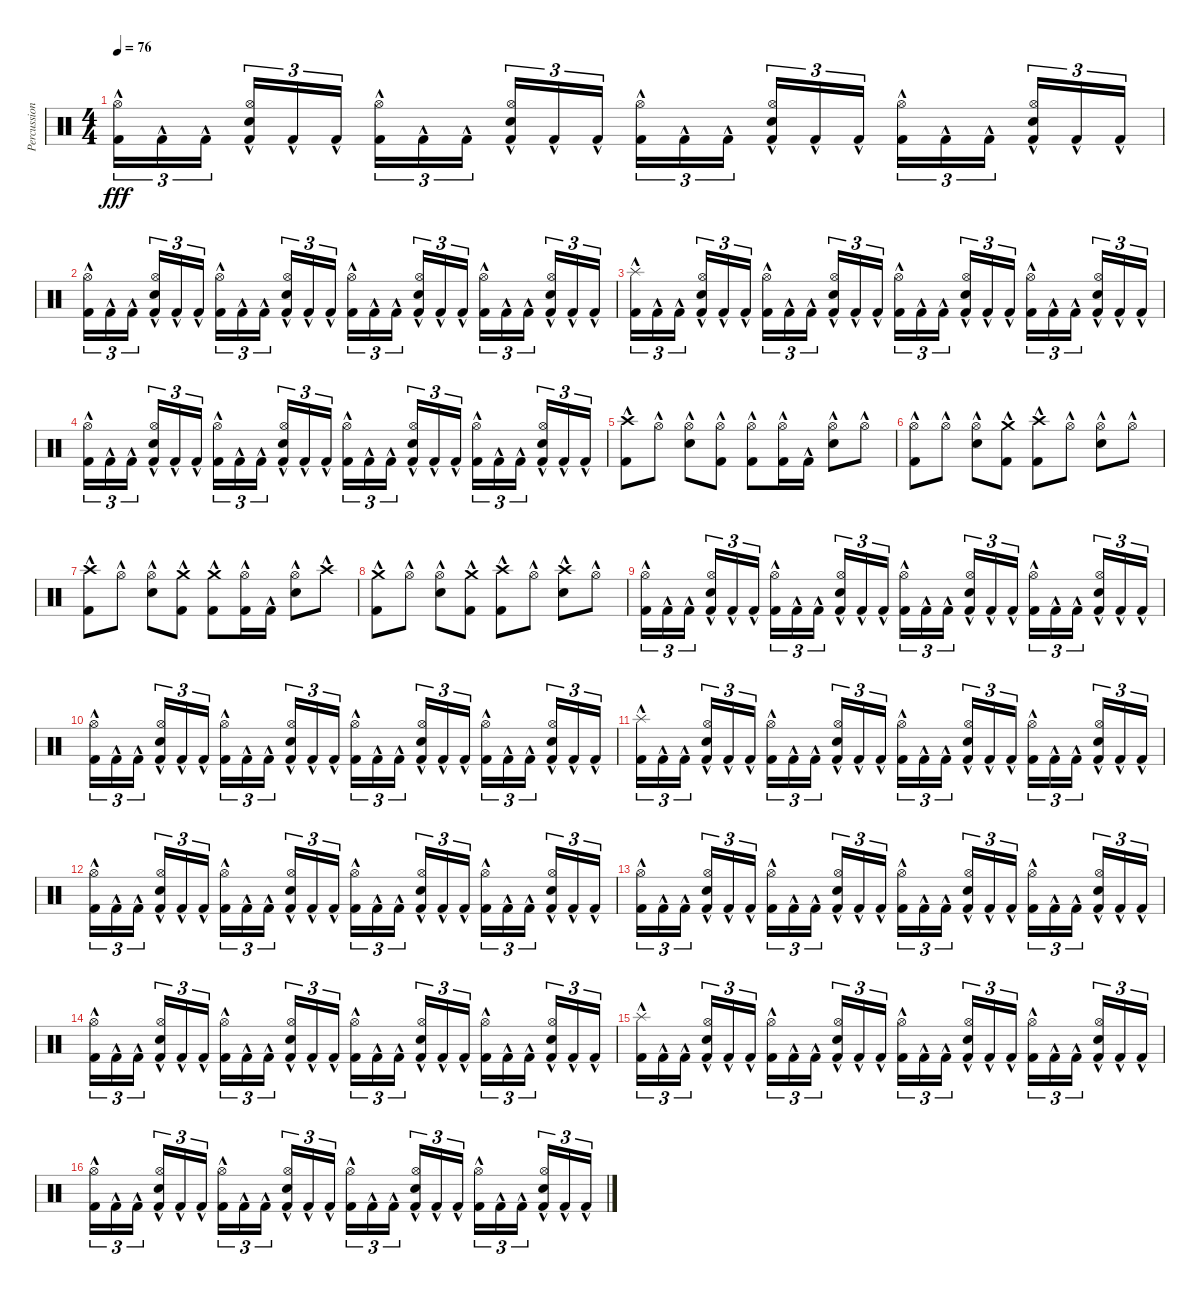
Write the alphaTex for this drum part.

\track ("Percussion" "Percussion") {instrument percussion}
\staff {score}
\articulation defaults
\ts (4 4)
\tempo 76
\clef neutral
\ks c
("Kick (hit) 2"{hac} "Hi-Hat (open)"{hac}).16{tu (3 2) dy fff} "Kick (hit) 2"{hac}.16{tu (3 2)} "Kick (hit) 2"{hac}.16{tu (3 2) beam splitsecondary} ("Kick (hit) 2"{hac} "Electric Snare (hit)"{hac} "Hi-Hat (open)"{hac}).16{tu (3 2)} "Kick (hit) 2"{hac}.16{tu (3 2)} "Kick (hit) 2"{hac}.16{tu (3 2)} ("Hi-Hat (open)"{hac} "Kick (hit) 2"{hac}).16{tu (3 2)} "Kick (hit) 2"{hac}.16{tu (3 2)} "Kick (hit) 2"{hac}.16{tu (3 2) beam splitsecondary} ("Kick (hit) 2"{hac} "Electric Snare (hit)"{hac} "Hi-Hat (open)"{hac}).16{tu (3 2)} "Kick (hit) 2"{hac}.16{tu (3 2)} "Kick (hit) 2"{hac}.16{tu (3 2)} ("Kick (hit) 2"{hac} "Hi-Hat (open)"{hac}).16{tu (3 2)} "Kick (hit) 2"{hac}.16{tu (3 2)} "Kick (hit) 2"{hac}.16{tu (3 2) beam splitsecondary} ("Kick (hit) 2"{hac} "Electric Snare (hit)"{hac} "Hi-Hat (open)"{hac}).16{tu (3 2)} "Kick (hit) 2"{hac}.16{tu (3 2)} "Kick (hit) 2"{hac}.16{tu (3 2)} ("Hi-Hat (open)"{hac} "Kick (hit) 2"{hac}).16{tu (3 2)} "Kick (hit) 2"{hac}.16{tu (3 2)} "Kick (hit) 2"{hac}.16{tu (3 2) beam splitsecondary} ("Kick (hit) 2"{hac} "Electric Snare (hit)"{hac} "Hi-Hat (open)"{hac}).16{tu (3 2)} "Kick (hit) 2"{hac}.16{tu (3 2)} "Kick (hit) 2"{hac}.16{tu (3 2)} |
("Kick (hit) 2"{hac} "Hi-Hat (open)"{hac}).16{tu (3 2)} "Kick (hit) 2"{hac}.16{tu (3 2)} "Kick (hit) 2"{hac}.16{tu (3 2) beam splitsecondary} ("Kick (hit) 2"{hac} "Electric Snare (hit)"{hac} "Hi-Hat (open)"{hac}).16{tu (3 2)} "Kick (hit) 2"{hac}.16{tu (3 2)} "Kick (hit) 2"{hac}.16{tu (3 2)} ("Hi-Hat (open)"{hac} "Kick (hit) 2"{hac}).16{tu (3 2)} "Kick (hit) 2"{hac}.16{tu (3 2)} "Kick (hit) 2"{hac}.16{tu (3 2) beam splitsecondary} ("Kick (hit) 2"{hac} "Electric Snare (hit)"{hac} "Hi-Hat (open)"{hac}).16{tu (3 2)} "Kick (hit) 2"{hac}.16{tu (3 2)} "Kick (hit) 2"{hac}.16{tu (3 2)} ("Kick (hit) 2"{hac} "Hi-Hat (open)"{hac}).16{tu (3 2)} "Kick (hit) 2"{hac}.16{tu (3 2)} "Kick (hit) 2"{hac}.16{tu (3 2) beam splitsecondary} ("Kick (hit) 2"{hac} "Electric Snare (hit)"{hac} "Hi-Hat (open)"{hac}).16{tu (3 2)} "Kick (hit) 2"{hac}.16{tu (3 2)} "Kick (hit) 2"{hac}.16{tu (3 2)} ("Hi-Hat (open)"{hac} "Kick (hit) 2"{hac}).16{tu (3 2)} "Kick (hit) 2"{hac}.16{tu (3 2)} "Kick (hit) 2"{hac}.16{tu (3 2) beam splitsecondary} ("Kick (hit) 2"{hac} "Electric Snare (hit)"{hac} "Hi-Hat (open)"{hac}).16{tu (3 2)} "Kick (hit) 2"{hac}.16{tu (3 2)} "Kick (hit) 2"{hac}.16{tu (3 2)} |
("Kick (hit) 2"{hac} "Splash (hit)"{hac}).16{tu (3 2)} "Kick (hit) 2"{hac}.16{tu (3 2)} "Kick (hit) 2"{hac}.16{tu (3 2) beam splitsecondary} ("Kick (hit) 2"{hac} "Electric Snare (hit)"{hac} "Hi-Hat (open)"{hac}).16{tu (3 2)} "Kick (hit) 2"{hac}.16{tu (3 2)} "Kick (hit) 2"{hac}.16{tu (3 2)} ("Hi-Hat (open)"{hac} "Kick (hit) 2"{hac}).16{tu (3 2)} "Kick (hit) 2"{hac}.16{tu (3 2)} "Kick (hit) 2"{hac}.16{tu (3 2) beam splitsecondary} ("Kick (hit) 2"{hac} "Electric Snare (hit)"{hac} "Hi-Hat (open)"{hac}).16{tu (3 2)} "Kick (hit) 2"{hac}.16{tu (3 2)} "Kick (hit) 2"{hac}.16{tu (3 2)} ("Kick (hit) 2"{hac} "Hi-Hat (open)"{hac}).16{tu (3 2)} "Kick (hit) 2"{hac}.16{tu (3 2)} "Kick (hit) 2"{hac}.16{tu (3 2) beam splitsecondary} ("Kick (hit) 2"{hac} "Electric Snare (hit)"{hac} "Hi-Hat (open)"{hac}).16{tu (3 2)} "Kick (hit) 2"{hac}.16{tu (3 2)} "Kick (hit) 2"{hac}.16{tu (3 2)} ("Hi-Hat (open)"{hac} "Kick (hit) 2"{hac}).16{tu (3 2)} "Kick (hit) 2"{hac}.16{tu (3 2)} "Kick (hit) 2"{hac}.16{tu (3 2) beam splitsecondary} ("Kick (hit) 2"{hac} "Electric Snare (hit)"{hac} "Hi-Hat (open)"{hac}).16{tu (3 2)} "Kick (hit) 2"{hac}.16{tu (3 2)} "Kick (hit) 2"{hac}.16{tu (3 2)} |
("Kick (hit) 2"{hac} "Hi-Hat (open)"{hac}).16{tu (3 2)} "Kick (hit) 2"{hac}.16{tu (3 2)} "Kick (hit) 2"{hac}.16{tu (3 2) beam splitsecondary} ("Kick (hit) 2"{hac} "Electric Snare (hit)"{hac} "Hi-Hat (open)"{hac}).16{tu (3 2)} "Kick (hit) 2"{hac}.16{tu (3 2)} "Kick (hit) 2"{hac}.16{tu (3 2)} ("Hi-Hat (open)"{hac} "Kick (hit) 2"{hac}).16{tu (3 2)} "Kick (hit) 2"{hac}.16{tu (3 2)} "Kick (hit) 2"{hac}.16{tu (3 2) beam splitsecondary} ("Kick (hit) 2"{hac} "Electric Snare (hit)"{hac} "Hi-Hat (open)"{hac}).16{tu (3 2)} "Kick (hit) 2"{hac}.16{tu (3 2)} "Kick (hit) 2"{hac}.16{tu (3 2)} ("Kick (hit) 2"{hac} "Hi-Hat (open)"{hac}).16{tu (3 2)} "Kick (hit) 2"{hac}.16{tu (3 2)} "Kick (hit) 2"{hac}.16{tu (3 2) beam splitsecondary} ("Kick (hit) 2"{hac} "Electric Snare (hit)"{hac} "Hi-Hat (open)"{hac}).16{tu (3 2)} "Kick (hit) 2"{hac}.16{tu (3 2)} "Kick (hit) 2"{hac}.16{tu (3 2)} ("Hi-Hat (open)"{hac} "Kick (hit) 2"{hac}).16{tu (3 2)} "Kick (hit) 2"{hac}.16{tu (3 2)} "Kick (hit) 2"{hac}.16{tu (3 2) beam splitsecondary} ("Kick (hit) 2"{hac} "Electric Snare (hit)"{hac} "Hi-Hat (open)"{hac}).16{tu (3 2)} "Kick (hit) 2"{hac}.16{tu (3 2)} "Kick (hit) 2"{hac}.16{tu (3 2)} |
("Crash high (hit)"{hac} "Kick (hit) 2"{hac}).8 "Hi-Hat (open)"{hac}.8 ("Hi-Hat (open)"{hac} "Electric Snare (hit)"{hac}).8 ("Hi-Hat (open)"{hac} "Kick (hit) 2"{hac}).8 ("Hi-Hat (open)"{hac} "Kick (hit) 2"{hac}).8 ("Hi-Hat (open)"{hac} "Kick (hit) 2"{hac}).16 "Kick (hit) 2"{hac}.16 ("Hi-Hat (open)"{hac} "Electric Snare (hit)"{hac}).8 "Hi-Hat (open)"{hac}.8 |
("Hi-Hat (open)"{hac} "Kick (hit) 2"{hac}).8 "Hi-Hat (open)"{hac}.8 ("Hi-Hat (open)"{hac} "Electric Snare (hit)"{hac}).8 ("Crash medium (hit)"{hac} "Kick (hit) 2"{hac}).8 ("Kick (hit) 2"{hac} "Crash high (hit)"{hac}).8 "Hi-Hat (open)"{hac}.8 ("Hi-Hat (open)"{hac} "Electric Snare (hit)"{hac}).8 "Hi-Hat (open)"{hac}.8 |
("Crash high (hit)"{hac} "Kick (hit) 2"{hac}).8 "Hi-Hat (open)"{hac}.8 ("Hi-Hat (open)"{hac} "Electric Snare (hit)"{hac}).8 ("Crash medium (hit)"{hac} "Kick (hit) 2"{hac}).8 ("Crash medium (hit)"{hac} "Kick (hit) 2"{hac}).8 ("Hi-Hat (open)"{hac} "Kick (hit) 2"{hac}).16 "Kick (hit) 2"{hac}.16 ("Hi-Hat (open)"{hac} "Electric Snare (hit)"{hac}).8 "Crash high (hit)"{hac}.8 |
("Crash medium (hit)"{hac} "Kick (hit) 2"{hac}).8 "Hi-Hat (open)"{hac}.8 ("Hi-Hat (open)"{hac} "Electric Snare (hit)"{hac}).8 ("Crash medium (hit)"{hac} "Kick (hit) 2"{hac}).8 ("Kick (hit) 2"{hac} "Crash high (hit)"{hac}).8 "Hi-Hat (open)"{hac}.8 ("Crash high (hit)"{hac} "Electric Snare (hit)"{hac}).8 "Hi-Hat (open)"{hac}.8 |
("Kick (hit) 2"{hac} "Hi-Hat (open)"{hac}).16{tu (3 2)} "Kick (hit) 2"{hac}.16{tu (3 2)} "Kick (hit) 2"{hac}.16{tu (3 2) beam splitsecondary} ("Kick (hit) 2"{hac} "Electric Snare (hit)"{hac} "Hi-Hat (open)"{hac}).16{tu (3 2)} "Kick (hit) 2"{hac}.16{tu (3 2)} "Kick (hit) 2"{hac}.16{tu (3 2)} ("Hi-Hat (open)"{hac} "Kick (hit) 2"{hac}).16{tu (3 2)} "Kick (hit) 2"{hac}.16{tu (3 2)} "Kick (hit) 2"{hac}.16{tu (3 2) beam splitsecondary} ("Kick (hit) 2"{hac} "Electric Snare (hit)"{hac} "Hi-Hat (open)"{hac}).16{tu (3 2)} "Kick (hit) 2"{hac}.16{tu (3 2)} "Kick (hit) 2"{hac}.16{tu (3 2)} ("Kick (hit) 2"{hac} "Hi-Hat (open)"{hac}).16{tu (3 2)} "Kick (hit) 2"{hac}.16{tu (3 2)} "Kick (hit) 2"{hac}.16{tu (3 2) beam splitsecondary} ("Kick (hit) 2"{hac} "Electric Snare (hit)"{hac} "Hi-Hat (open)"{hac}).16{tu (3 2)} "Kick (hit) 2"{hac}.16{tu (3 2)} "Kick (hit) 2"{hac}.16{tu (3 2)} ("Hi-Hat (open)"{hac} "Kick (hit) 2"{hac}).16{tu (3 2)} "Kick (hit) 2"{hac}.16{tu (3 2)} "Kick (hit) 2"{hac}.16{tu (3 2) beam splitsecondary} ("Kick (hit) 2"{hac} "Electric Snare (hit)"{hac} "Hi-Hat (open)"{hac}).16{tu (3 2)} "Kick (hit) 2"{hac}.16{tu (3 2)} "Kick (hit) 2"{hac}.16{tu (3 2)} |
("Kick (hit) 2"{hac} "Hi-Hat (open)"{hac}).16{tu (3 2)} "Kick (hit) 2"{hac}.16{tu (3 2)} "Kick (hit) 2"{hac}.16{tu (3 2) beam splitsecondary} ("Kick (hit) 2"{hac} "Electric Snare (hit)"{hac} "Hi-Hat (open)"{hac}).16{tu (3 2)} "Kick (hit) 2"{hac}.16{tu (3 2)} "Kick (hit) 2"{hac}.16{tu (3 2)} ("Hi-Hat (open)"{hac} "Kick (hit) 2"{hac}).16{tu (3 2)} "Kick (hit) 2"{hac}.16{tu (3 2)} "Kick (hit) 2"{hac}.16{tu (3 2) beam splitsecondary} ("Kick (hit) 2"{hac} "Electric Snare (hit)"{hac} "Hi-Hat (open)"{hac}).16{tu (3 2)} "Kick (hit) 2"{hac}.16{tu (3 2)} "Kick (hit) 2"{hac}.16{tu (3 2)} ("Kick (hit) 2"{hac} "Hi-Hat (open)"{hac}).16{tu (3 2)} "Kick (hit) 2"{hac}.16{tu (3 2)} "Kick (hit) 2"{hac}.16{tu (3 2) beam splitsecondary} ("Kick (hit) 2"{hac} "Electric Snare (hit)"{hac} "Hi-Hat (open)"{hac}).16{tu (3 2)} "Kick (hit) 2"{hac}.16{tu (3 2)} "Kick (hit) 2"{hac}.16{tu (3 2)} ("Hi-Hat (open)"{hac} "Kick (hit) 2"{hac}).16{tu (3 2)} "Kick (hit) 2"{hac}.16{tu (3 2)} "Kick (hit) 2"{hac}.16{tu (3 2) beam splitsecondary} ("Kick (hit) 2"{hac} "Electric Snare (hit)"{hac} "Hi-Hat (open)"{hac}).16{tu (3 2)} "Kick (hit) 2"{hac}.16{tu (3 2)} "Kick (hit) 2"{hac}.16{tu (3 2)} |
("Kick (hit) 2"{hac} "Splash (hit)"{hac}).16{tu (3 2)} "Kick (hit) 2"{hac}.16{tu (3 2)} "Kick (hit) 2"{hac}.16{tu (3 2) beam splitsecondary} ("Kick (hit) 2"{hac} "Electric Snare (hit)"{hac} "Hi-Hat (open)"{hac}).16{tu (3 2)} "Kick (hit) 2"{hac}.16{tu (3 2)} "Kick (hit) 2"{hac}.16{tu (3 2)} ("Hi-Hat (open)"{hac} "Kick (hit) 2"{hac}).16{tu (3 2)} "Kick (hit) 2"{hac}.16{tu (3 2)} "Kick (hit) 2"{hac}.16{tu (3 2) beam splitsecondary} ("Kick (hit) 2"{hac} "Electric Snare (hit)"{hac} "Hi-Hat (open)"{hac}).16{tu (3 2)} "Kick (hit) 2"{hac}.16{tu (3 2)} "Kick (hit) 2"{hac}.16{tu (3 2)} ("Kick (hit) 2"{hac} "Hi-Hat (open)"{hac}).16{tu (3 2)} "Kick (hit) 2"{hac}.16{tu (3 2)} "Kick (hit) 2"{hac}.16{tu (3 2) beam splitsecondary} ("Kick (hit) 2"{hac} "Electric Snare (hit)"{hac} "Hi-Hat (open)"{hac}).16{tu (3 2)} "Kick (hit) 2"{hac}.16{tu (3 2)} "Kick (hit) 2"{hac}.16{tu (3 2)} ("Hi-Hat (open)"{hac} "Kick (hit) 2"{hac}).16{tu (3 2)} "Kick (hit) 2"{hac}.16{tu (3 2)} "Kick (hit) 2"{hac}.16{tu (3 2) beam splitsecondary} ("Kick (hit) 2"{hac} "Electric Snare (hit)"{hac} "Hi-Hat (open)"{hac}).16{tu (3 2)} "Kick (hit) 2"{hac}.16{tu (3 2)} "Kick (hit) 2"{hac}.16{tu (3 2)} |
("Kick (hit) 2"{hac} "Hi-Hat (open)"{hac}).16{tu (3 2)} "Kick (hit) 2"{hac}.16{tu (3 2)} "Kick (hit) 2"{hac}.16{tu (3 2) beam splitsecondary} ("Kick (hit) 2"{hac} "Electric Snare (hit)"{hac} "Hi-Hat (open)"{hac}).16{tu (3 2)} "Kick (hit) 2"{hac}.16{tu (3 2)} "Kick (hit) 2"{hac}.16{tu (3 2)} ("Hi-Hat (open)"{hac} "Kick (hit) 2"{hac}).16{tu (3 2)} "Kick (hit) 2"{hac}.16{tu (3 2)} "Kick (hit) 2"{hac}.16{tu (3 2) beam splitsecondary} ("Kick (hit) 2"{hac} "Electric Snare (hit)"{hac} "Hi-Hat (open)"{hac}).16{tu (3 2)} "Kick (hit) 2"{hac}.16{tu (3 2)} "Kick (hit) 2"{hac}.16{tu (3 2)} ("Kick (hit) 2"{hac} "Hi-Hat (open)"{hac}).16{tu (3 2)} "Kick (hit) 2"{hac}.16{tu (3 2)} "Kick (hit) 2"{hac}.16{tu (3 2) beam splitsecondary} ("Kick (hit) 2"{hac} "Electric Snare (hit)"{hac} "Hi-Hat (open)"{hac}).16{tu (3 2)} "Kick (hit) 2"{hac}.16{tu (3 2)} "Kick (hit) 2"{hac}.16{tu (3 2)} ("Hi-Hat (open)"{hac} "Kick (hit) 2"{hac}).16{tu (3 2)} "Kick (hit) 2"{hac}.16{tu (3 2)} "Kick (hit) 2"{hac}.16{tu (3 2) beam splitsecondary} ("Kick (hit) 2"{hac} "Electric Snare (hit)"{hac} "Hi-Hat (open)"{hac}).16{tu (3 2)} "Kick (hit) 2"{hac}.16{tu (3 2)} "Kick (hit) 2"{hac}.16{tu (3 2)} |
("Kick (hit) 2"{hac} "Hi-Hat (open)"{hac}).16{tu (3 2)} "Kick (hit) 2"{hac}.16{tu (3 2)} "Kick (hit) 2"{hac}.16{tu (3 2) beam splitsecondary} ("Kick (hit) 2"{hac} "Electric Snare (hit)"{hac} "Hi-Hat (open)"{hac}).16{tu (3 2)} "Kick (hit) 2"{hac}.16{tu (3 2)} "Kick (hit) 2"{hac}.16{tu (3 2)} ("Hi-Hat (open)"{hac} "Kick (hit) 2"{hac}).16{tu (3 2)} "Kick (hit) 2"{hac}.16{tu (3 2)} "Kick (hit) 2"{hac}.16{tu (3 2) beam splitsecondary} ("Kick (hit) 2"{hac} "Electric Snare (hit)"{hac} "Hi-Hat (open)"{hac}).16{tu (3 2)} "Kick (hit) 2"{hac}.16{tu (3 2)} "Kick (hit) 2"{hac}.16{tu (3 2)} ("Kick (hit) 2"{hac} "Hi-Hat (open)"{hac}).16{tu (3 2)} "Kick (hit) 2"{hac}.16{tu (3 2)} "Kick (hit) 2"{hac}.16{tu (3 2) beam splitsecondary} ("Kick (hit) 2"{hac} "Electric Snare (hit)"{hac} "Hi-Hat (open)"{hac}).16{tu (3 2)} "Kick (hit) 2"{hac}.16{tu (3 2)} "Kick (hit) 2"{hac}.16{tu (3 2)} ("Hi-Hat (open)"{hac} "Kick (hit) 2"{hac}).16{tu (3 2)} "Kick (hit) 2"{hac}.16{tu (3 2)} "Kick (hit) 2"{hac}.16{tu (3 2) beam splitsecondary} ("Kick (hit) 2"{hac} "Electric Snare (hit)"{hac} "Hi-Hat (open)"{hac}).16{tu (3 2)} "Kick (hit) 2"{hac}.16{tu (3 2)} "Kick (hit) 2"{hac}.16{tu (3 2)} |
("Kick (hit) 2"{hac} "Hi-Hat (open)"{hac}).16{tu (3 2)} "Kick (hit) 2"{hac}.16{tu (3 2)} "Kick (hit) 2"{hac}.16{tu (3 2) beam splitsecondary} ("Kick (hit) 2"{hac} "Electric Snare (hit)"{hac} "Hi-Hat (open)"{hac}).16{tu (3 2)} "Kick (hit) 2"{hac}.16{tu (3 2)} "Kick (hit) 2"{hac}.16{tu (3 2)} ("Hi-Hat (open)"{hac} "Kick (hit) 2"{hac}).16{tu (3 2)} "Kick (hit) 2"{hac}.16{tu (3 2)} "Kick (hit) 2"{hac}.16{tu (3 2) beam splitsecondary} ("Kick (hit) 2"{hac} "Electric Snare (hit)"{hac} "Hi-Hat (open)"{hac}).16{tu (3 2)} "Kick (hit) 2"{hac}.16{tu (3 2)} "Kick (hit) 2"{hac}.16{tu (3 2)} ("Kick (hit) 2"{hac} "Hi-Hat (open)"{hac}).16{tu (3 2)} "Kick (hit) 2"{hac}.16{tu (3 2)} "Kick (hit) 2"{hac}.16{tu (3 2) beam splitsecondary} ("Kick (hit) 2"{hac} "Electric Snare (hit)"{hac} "Hi-Hat (open)"{hac}).16{tu (3 2)} "Kick (hit) 2"{hac}.16{tu (3 2)} "Kick (hit) 2"{hac}.16{tu (3 2)} ("Hi-Hat (open)"{hac} "Kick (hit) 2"{hac}).16{tu (3 2)} "Kick (hit) 2"{hac}.16{tu (3 2)} "Kick (hit) 2"{hac}.16{tu (3 2) beam splitsecondary} ("Kick (hit) 2"{hac} "Electric Snare (hit)"{hac} "Hi-Hat (open)"{hac}).16{tu (3 2)} "Kick (hit) 2"{hac}.16{tu (3 2)} "Kick (hit) 2"{hac}.16{tu (3 2)} |
("Kick (hit) 2"{hac} "Splash (hit)"{hac}).16{tu (3 2)} "Kick (hit) 2"{hac}.16{tu (3 2)} "Kick (hit) 2"{hac}.16{tu (3 2) beam splitsecondary} ("Kick (hit) 2"{hac} "Electric Snare (hit)"{hac} "Hi-Hat (open)"{hac}).16{tu (3 2)} "Kick (hit) 2"{hac}.16{tu (3 2)} "Kick (hit) 2"{hac}.16{tu (3 2)} ("Hi-Hat (open)"{hac} "Kick (hit) 2"{hac}).16{tu (3 2)} "Kick (hit) 2"{hac}.16{tu (3 2)} "Kick (hit) 2"{hac}.16{tu (3 2) beam splitsecondary} ("Kick (hit) 2"{hac} "Electric Snare (hit)"{hac} "Hi-Hat (open)"{hac}).16{tu (3 2)} "Kick (hit) 2"{hac}.16{tu (3 2)} "Kick (hit) 2"{hac}.16{tu (3 2)} ("Kick (hit) 2"{hac} "Hi-Hat (open)"{hac}).16{tu (3 2)} "Kick (hit) 2"{hac}.16{tu (3 2)} "Kick (hit) 2"{hac}.16{tu (3 2) beam splitsecondary} ("Kick (hit) 2"{hac} "Electric Snare (hit)"{hac} "Hi-Hat (open)"{hac}).16{tu (3 2)} "Kick (hit) 2"{hac}.16{tu (3 2)} "Kick (hit) 2"{hac}.16{tu (3 2)} ("Hi-Hat (open)"{hac} "Kick (hit) 2"{hac}).16{tu (3 2)} "Kick (hit) 2"{hac}.16{tu (3 2)} "Kick (hit) 2"{hac}.16{tu (3 2) beam splitsecondary} ("Kick (hit) 2"{hac} "Electric Snare (hit)"{hac} "Hi-Hat (open)"{hac}).16{tu (3 2)} "Kick (hit) 2"{hac}.16{tu (3 2)} "Kick (hit) 2"{hac}.16{tu (3 2)} |
("Kick (hit) 2"{hac} "Hi-Hat (open)"{hac}).16{tu (3 2)} "Kick (hit) 2"{hac}.16{tu (3 2)} "Kick (hit) 2"{hac}.16{tu (3 2) beam splitsecondary} ("Kick (hit) 2"{hac} "Electric Snare (hit)"{hac} "Hi-Hat (open)"{hac}).16{tu (3 2)} "Kick (hit) 2"{hac}.16{tu (3 2)} "Kick (hit) 2"{hac}.16{tu (3 2)} ("Hi-Hat (open)"{hac} "Kick (hit) 2"{hac}).16{tu (3 2)} "Kick (hit) 2"{hac}.16{tu (3 2)} "Kick (hit) 2"{hac}.16{tu (3 2) beam splitsecondary} ("Kick (hit) 2"{hac} "Electric Snare (hit)"{hac} "Hi-Hat (open)"{hac}).16{tu (3 2)} "Kick (hit) 2"{hac}.16{tu (3 2)} "Kick (hit) 2"{hac}.16{tu (3 2)} ("Kick (hit) 2"{hac} "Hi-Hat (open)"{hac}).16{tu (3 2)} "Kick (hit) 2"{hac}.16{tu (3 2)} "Kick (hit) 2"{hac}.16{tu (3 2) beam splitsecondary} ("Kick (hit) 2"{hac} "Electric Snare (hit)"{hac} "Hi-Hat (open)"{hac}).16{tu (3 2)} "Kick (hit) 2"{hac}.16{tu (3 2)} "Kick (hit) 2"{hac}.16{tu (3 2)} ("Hi-Hat (open)"{hac} "Kick (hit) 2"{hac}).16{tu (3 2)} "Kick (hit) 2"{hac}.16{tu (3 2)} "Kick (hit) 2"{hac}.16{tu (3 2) beam splitsecondary} ("Kick (hit) 2"{hac} "Electric Snare (hit)"{hac} "Hi-Hat (open)"{hac}).16{tu (3 2)} "Kick (hit) 2"{hac}.16{tu (3 2)} "Kick (hit) 2"{hac}.16{tu (3 2)}
